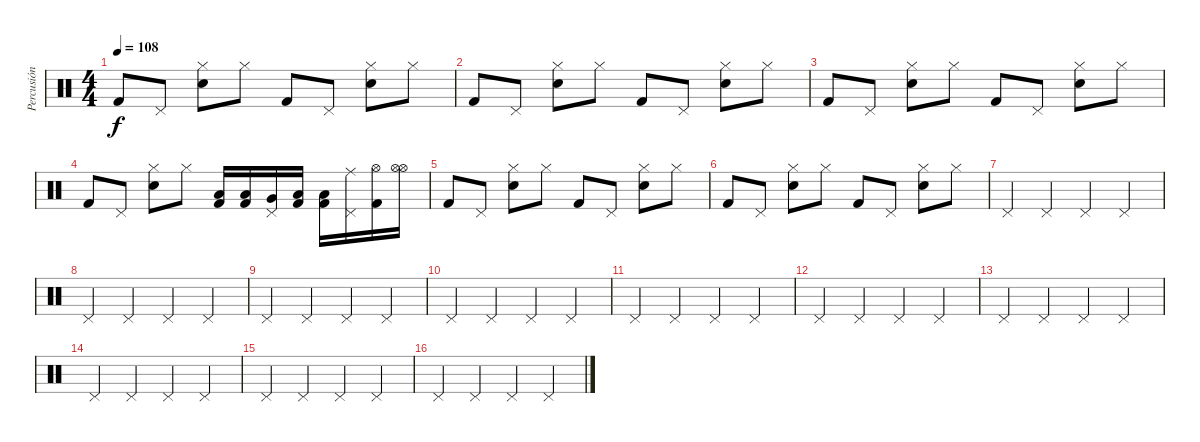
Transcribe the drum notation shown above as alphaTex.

\track ("Percusión" "Percusión") {instrument percussion}
\staff {score}
\articulation defaults
\ts (4 4)
\tempo 108
\clef neutral
\ks c "Kick (hit) 2".8{dy f} "Pedal Hi-Hat (hit)".8
("Electric Snare (hit)" "Hi-Hat (closed)").8 "Hi-Hat (closed)".8 "Kick (hit) 2".8 "Pedal Hi-Hat (hit)".8 ("Electric Snare (hit)" "Hi-Hat (closed)").8 "Hi-Hat (closed)".8 |
"Kick (hit) 2".8 "Pedal Hi-Hat (hit)".8 ("Electric Snare (hit)" "Hi-Hat (closed)").8 "Hi-Hat (closed)".8 "Kick (hit) 2".8 "Pedal Hi-Hat (hit)".8 ("Electric Snare (hit)" "Hi-Hat (closed)").8 "Hi-Hat (closed)".8 |
"Kick (hit) 2".8 "Pedal Hi-Hat (hit)".8 ("Electric Snare (hit)" "Hi-Hat (closed)").8 "Hi-Hat (closed)".8 "Kick (hit) 2".8 "Pedal Hi-Hat (hit)".8 ("Electric Snare (hit)" "Hi-Hat (closed)").8 "Hi-Hat (closed)".8 |
"Kick (hit) 2".8 "Pedal Hi-Hat (hit)".8 ("Electric Snare (hit)" "Hi-Hat (closed)").8 "Hi-Hat (closed)".8 ("Kick (hit) 2" "Low Floor Tom (hit)").16 ("Kick (hit) 2" "Low Floor Tom (hit)").16 ("Pedal Hi-Hat (hit)" "Very Low Tom (hit)").16 ("Kick (hit) 2" "Low Floor Tom (hit)").16 ("Kick (hit) 2" "Low Tom (hit)").16 ("Pedal Hi-Hat (hit)" "Ride (middle)").16 ("Kick (hit) 2" "Hi-Hat (open)").16 ("Hi-Hat (open)" "Hi-Hat (open)").16 |
"Kick (hit) 2".8 "Pedal Hi-Hat (hit)".8 ("Electric Snare (hit)" "Hi-Hat (closed)").8 "Hi-Hat (closed)".8 "Kick (hit) 2".8 "Pedal Hi-Hat (hit)".8 ("Electric Snare (hit)" "Hi-Hat (closed)").8 "Hi-Hat (closed)".8 |
"Kick (hit) 2".8 "Pedal Hi-Hat (hit)".8 ("Electric Snare (hit)" "Hi-Hat (closed)").8 "Hi-Hat (closed)".8 "Kick (hit) 2".8 "Pedal Hi-Hat (hit)".8 ("Electric Snare (hit)" "Hi-Hat (closed)").8 "Hi-Hat (closed)".8 |
"Pedal Hi-Hat (hit)".4 "Pedal Hi-Hat (hit)".4 "Pedal Hi-Hat (hit)".4 "Pedal Hi-Hat (hit)".4 |
"Pedal Hi-Hat (hit)".4 "Pedal Hi-Hat (hit)".4 "Pedal Hi-Hat (hit)".4 "Pedal Hi-Hat (hit)".4 |
"Pedal Hi-Hat (hit)".4 "Pedal Hi-Hat (hit)".4 "Pedal Hi-Hat (hit)".4 "Pedal Hi-Hat (hit)".4 |
"Pedal Hi-Hat (hit)".4 "Pedal Hi-Hat (hit)".4 "Pedal Hi-Hat (hit)".4 "Pedal Hi-Hat (hit)".4 |
"Pedal Hi-Hat (hit)".4 "Pedal Hi-Hat (hit)".4 "Pedal Hi-Hat (hit)".4 "Pedal Hi-Hat (hit)".4 |
"Pedal Hi-Hat (hit)".4 "Pedal Hi-Hat (hit)".4 "Pedal Hi-Hat (hit)".4 "Pedal Hi-Hat (hit)".4 |
"Pedal Hi-Hat (hit)".4 "Pedal Hi-Hat (hit)".4 "Pedal Hi-Hat (hit)".4 "Pedal Hi-Hat (hit)".4 |
"Pedal Hi-Hat (hit)".4 "Pedal Hi-Hat (hit)".4 "Pedal Hi-Hat (hit)".4 "Pedal Hi-Hat (hit)".4 |
"Pedal Hi-Hat (hit)".4 "Pedal Hi-Hat (hit)".4 "Pedal Hi-Hat (hit)".4 "Pedal Hi-Hat (hit)".4 |
"Pedal Hi-Hat (hit)".4 "Pedal Hi-Hat (hit)".4 "Pedal Hi-Hat (hit)".4 "Pedal Hi-Hat (hit)".4
